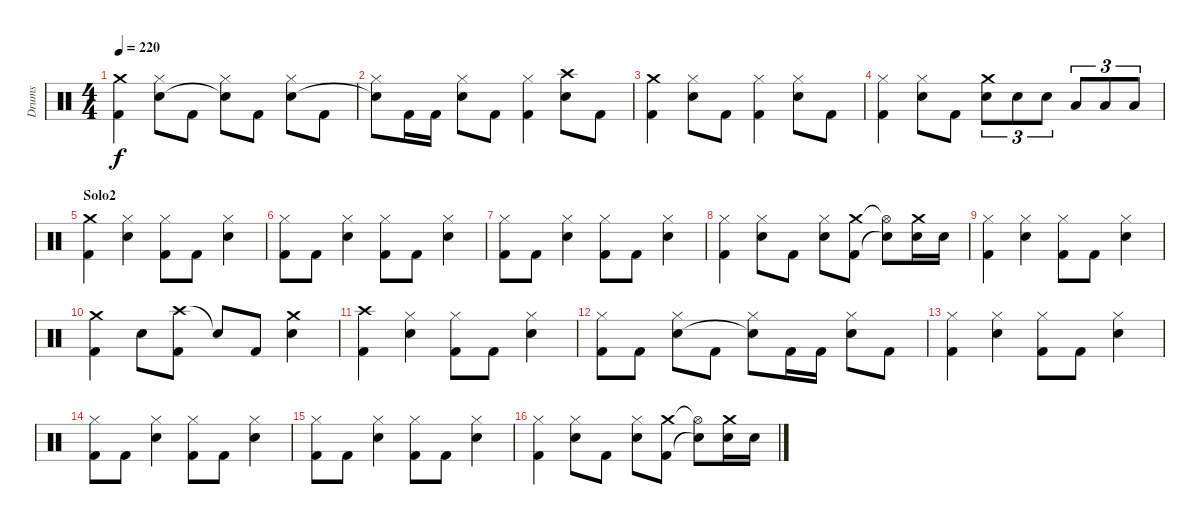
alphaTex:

\track ("Drums" "Drums") {instrument percussion}
\staff {score}
\articulation defaults
\ts (4 4)
\tempo 220
\clef neutral
\ks c
("Crash medium (hit)" "Kick (hit) 2").4{dy f} ("Hi-Hat (closed)" "Electric Snare (hit)").8 "Kick (hit) 2".8 ("Hi-Hat (closed)" "Snare (hit)"{t}).8 "Kick (hit) 2".8 ("Hi-Hat (closed)" "Electric Snare (hit)").8 "Kick (hit) 2".8 |
("Hi-Hat (closed)" "Snare (hit)"{t}).8 "Kick (hit) 2".16 "Kick (hit) 2".16 ("Hi-Hat (closed)" "Electric Snare (hit)").8 "Kick (hit) 2".8 ("Hi-Hat (closed)" "Kick (hit) 2").4 ("Crash high (hit)" "Electric Snare (hit)").8 "Kick (hit) 2".8 |
("Crash medium (hit)" "Kick (hit) 2").4 ("Hi-Hat (closed)" "Electric Snare (hit)").8 "Kick (hit) 2".8 ("Hi-Hat (closed)" "Kick (hit) 2").4 ("Hi-Hat (closed)" "Electric Snare (hit)").8 "Kick (hit) 2".8 |
("Hi-Hat (closed)" "Kick (hit) 2").4 ("Hi-Hat (closed)" "Electric Snare (hit)").8 "Kick (hit) 2".8 ("Crash medium (hit)" "Electric Snare (hit)").8{tu (3 2)} "Electric Snare (hit)".8{tu (3 2)} "Electric Snare (hit)".8{tu (3 2)} "Low Tom (hit)".8{tu (3 2)} "Low Tom (hit)".8{tu (3 2)} "Low Tom (hit)".8{tu (3 2)} |
\section ("" "Solo2")
("Crash medium (hit)" "Kick (hit) 2").4 ("Hi-Hat (closed)" "Electric Snare (hit)").4 ("Hi-Hat (closed)" "Kick (hit) 2").8 "Kick (hit) 2".8 ("Hi-Hat (closed)" "Electric Snare (hit)").4 |
("Hi-Hat (closed)" "Kick (hit) 2").8 "Kick (hit) 2".8 ("Hi-Hat (closed)" "Electric Snare (hit)").4 ("Hi-Hat (closed)" "Kick (hit) 2").8 "Kick (hit) 2".8 ("Hi-Hat (closed)" "Electric Snare (hit)").4 |
("Hi-Hat (closed)" "Kick (hit) 2").8 "Kick (hit) 2".8 ("Hi-Hat (closed)" "Electric Snare (hit)").4 ("Hi-Hat (closed)" "Kick (hit) 2").8 "Kick (hit) 2".8 ("Hi-Hat (closed)" "Electric Snare (hit)").4 |
("Hi-Hat (closed)" "Kick (hit) 2").4 ("Hi-Hat (closed)" "Electric Snare (hit)").8 "Kick (hit) 2".8 ("Hi-Hat (closed)" "Electric Snare (hit)").8 ("Crash medium (hit)" "Kick (hit) 2").8 ("Hi-Hat (open)"{t} "Snare (hit)"{t}).8 ("Crash medium (hit)" "Electric Snare (hit)").16 "Electric Snare (hit)".16 |
("Hi-Hat (closed)" "Kick (hit) 2").4 ("Hi-Hat (closed)" "Electric Snare (hit)").4 ("Hi-Hat (closed)" "Kick (hit) 2").8 "Kick (hit) 2".8 ("Hi-Hat (closed)" "Electric Snare (hit)").4 |
("Crash medium (hit)" "Kick (hit) 2").4 "Electric Snare (hit)".8 ("Crash high (hit)" "Kick (hit) 2").8 "Snare (hit)"{t}.8 "Kick (hit) 2".8 ("Crash medium (hit)" "Electric Snare (hit)").4 |
("Crash high (hit)" "Kick (hit) 2").4 ("Hi-Hat (closed)" "Electric Snare (hit)").4 ("Hi-Hat (closed)" "Kick (hit) 2").8 "Kick (hit) 2".8 ("Hi-Hat (closed)" "Electric Snare (hit)").4 |
("Hi-Hat (closed)" "Kick (hit) 2").8 "Kick (hit) 2".8 ("Hi-Hat (closed)" "Electric Snare (hit)").8 "Kick (hit) 2".8 ("Hi-Hat (closed)" "Snare (hit)"{t}).8 "Kick (hit) 2".16 "Kick (hit) 2".16 ("Hi-Hat (closed)" "Electric Snare (hit)").8 "Kick (hit) 2".8 |
("Hi-Hat (closed)" "Kick (hit) 2").4 ("Hi-Hat (closed)" "Electric Snare (hit)").4 ("Hi-Hat (closed)" "Kick (hit) 2").8 "Kick (hit) 2".8 ("Hi-Hat (closed)" "Electric Snare (hit)").4 |
("Hi-Hat (closed)" "Kick (hit) 2").8 "Kick (hit) 2".8 ("Hi-Hat (closed)" "Electric Snare (hit)").4 ("Hi-Hat (closed)" "Kick (hit) 2").8 "Kick (hit) 2".8 ("Hi-Hat (closed)" "Electric Snare (hit)").4 |
("Hi-Hat (closed)" "Kick (hit) 2").8 "Kick (hit) 2".8 ("Hi-Hat (closed)" "Electric Snare (hit)").4 ("Hi-Hat (closed)" "Kick (hit) 2").8 "Kick (hit) 2".8 ("Hi-Hat (closed)" "Electric Snare (hit)").4 |
("Hi-Hat (closed)" "Kick (hit) 2").4 ("Hi-Hat (closed)" "Electric Snare (hit)").8 "Kick (hit) 2".8 ("Hi-Hat (closed)" "Electric Snare (hit)").8 ("Crash medium (hit)" "Kick (hit) 2").8 ("Hi-Hat (open)"{t} "Snare (hit)"{t}).8 ("Crash medium (hit)" "Electric Snare (hit)").16 "Electric Snare (hit)".16
